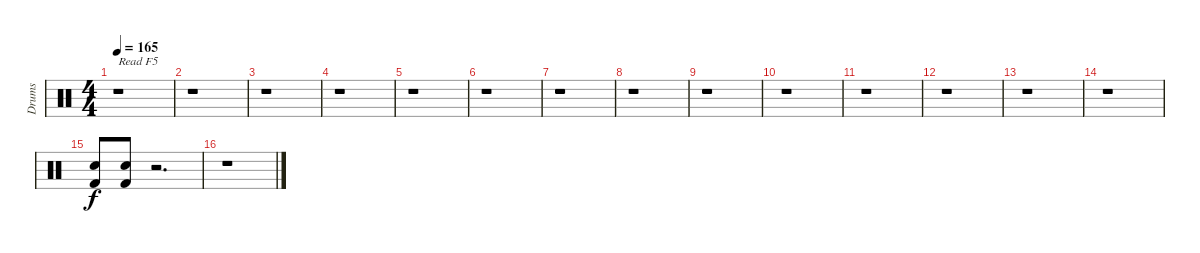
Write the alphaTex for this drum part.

\track ("Drums" "Drums") {instrument percussion}
\staff {score}
\articulation defaults
\ts (4 4)
\tempo 165
\clef neutral
\ks c
r.1{txt "Read F5" dy f} |
r.1 |
r.1 |
r.1 |
r.1 |
r.1 |
r.1 |
r.1 |
r.1 |
r.1 |
r.1 |
r.1 |
r.1 |
r.1 |
("Electric Snare (hit)" "Kick (hit) 2").8 ("Electric Snare (hit)" "Kick (hit) 2").8 r.2{d} |
r.1
